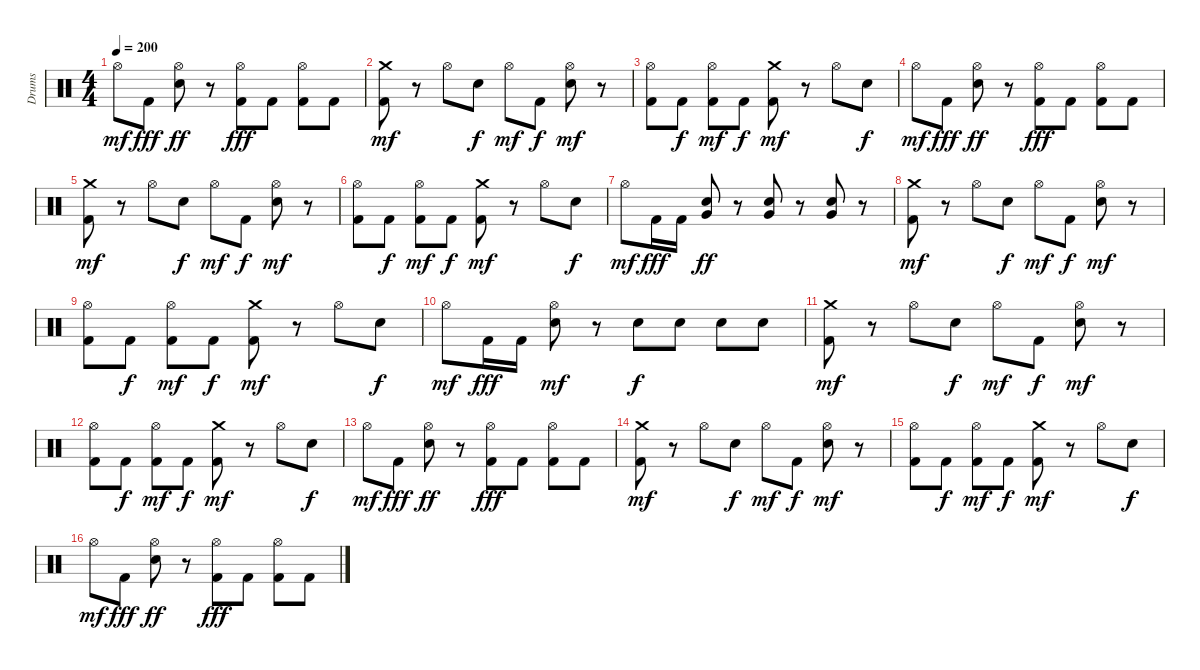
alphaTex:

\track ("Drums" "Drums") {instrument percussion}
\staff {score}
\articulation defaults
\ts (4 4)
\tempo 200
\clef neutral
\ks c "Hi-Hat (open)".8{dy mf} "Kick (hit) 2".8{dy fff}
("Hi-Hat (open)" "Electric Snare (hit)").8{dy ff} r.8 ("Hi-Hat (open)" "Kick (hit) 2").8{dy fff} "Kick (hit) 2".8 ("Hi-Hat (open)" "Kick (hit) 2").8 "Kick (hit) 2".8 |
("Crash medium (hit)" "Kick (hit) 2").8{dy mf} r.8 "Hi-Hat (open)".8 "Electric Snare (hit)".8{dy f} "Hi-Hat (open)".8{dy mf} "Kick (hit) 2".8{dy f} ("Hi-Hat (open)" "Electric Snare (hit)").8{dy mf} r.8 |
("Hi-Hat (open)" "Kick (hit) 2").8 "Kick (hit) 2".8{dy f} ("Hi-Hat (open)" "Kick (hit) 2").8{dy mf} "Kick (hit) 2".8{dy f} ("Crash medium (hit)" "Kick (hit) 2").8{dy mf} r.8 "Hi-Hat (open)".8 "Electric Snare (hit)".8{dy f} |
"Hi-Hat (open)".8{dy mf} "Kick (hit) 2".8{dy fff} ("Hi-Hat (open)" "Electric Snare (hit)").8{dy ff} r.8 ("Hi-Hat (open)" "Kick (hit) 2").8{dy fff} "Kick (hit) 2".8 ("Hi-Hat (open)" "Kick (hit) 2").8 "Kick (hit) 2".8 |
("Crash medium (hit)" "Kick (hit) 2").8{dy mf} r.8 "Hi-Hat (open)".8 "Electric Snare (hit)".8{dy f} "Hi-Hat (open)".8{dy mf} "Kick (hit) 2".8{dy f} ("Hi-Hat (open)" "Electric Snare (hit)").8{dy mf} r.8 |
("Hi-Hat (open)" "Kick (hit) 2").8 "Kick (hit) 2".8{dy f} ("Hi-Hat (open)" "Kick (hit) 2").8{dy mf} "Kick (hit) 2".8{dy f} ("Crash medium (hit)" "Kick (hit) 2").8{dy mf} r.8 "Hi-Hat (open)".8 "Electric Snare (hit)".8{dy f} |
"Hi-Hat (open)".8{dy mf} "Kick (hit) 2".16{dy fff} "Kick (hit) 2".16 ("Very Low Tom (hit)" "Electric Snare (hit)").8{dy ff} r.8 ("Very Low Tom (hit)" "Electric Snare (hit)").8 r.8 ("Very Low Tom (hit)" "Electric Snare (hit)").8 r.8 |
("Crash medium (hit)" "Kick (hit) 2").8{dy mf} r.8 "Hi-Hat (open)".8 "Electric Snare (hit)".8{dy f} "Hi-Hat (open)".8{dy mf} "Kick (hit) 2".8{dy f} ("Hi-Hat (open)" "Electric Snare (hit)").8{dy mf} r.8 |
("Hi-Hat (open)" "Kick (hit) 2").8 "Kick (hit) 2".8{dy f} ("Hi-Hat (open)" "Kick (hit) 2").8{dy mf} "Kick (hit) 2".8{dy f} ("Crash medium (hit)" "Kick (hit) 2").8{dy mf} r.8 "Hi-Hat (open)".8 "Electric Snare (hit)".8{dy f} |
"Hi-Hat (open)".8{dy mf} "Kick (hit) 2".16{dy fff} "Kick (hit) 2".16 ("Hi-Hat (open)" "Electric Snare (hit)").8{dy mf} r.8 "Electric Snare (hit)".8{dy f} "Electric Snare (hit)".8 "Electric Snare (hit)".8 "Electric Snare (hit)".8 |
("Crash medium (hit)" "Kick (hit) 2").8{dy mf} r.8 "Hi-Hat (open)".8 "Electric Snare (hit)".8{dy f} "Hi-Hat (open)".8{dy mf} "Kick (hit) 2".8{dy f} ("Hi-Hat (open)" "Electric Snare (hit)").8{dy mf} r.8 |
("Hi-Hat (open)" "Kick (hit) 2").8 "Kick (hit) 2".8{dy f} ("Hi-Hat (open)" "Kick (hit) 2").8{dy mf} "Kick (hit) 2".8{dy f} ("Crash medium (hit)" "Kick (hit) 2").8{dy mf} r.8 "Hi-Hat (open)".8 "Electric Snare (hit)".8{dy f} |
"Hi-Hat (open)".8{dy mf} "Kick (hit) 2".8{dy fff} ("Hi-Hat (open)" "Electric Snare (hit)").8{dy ff} r.8 ("Hi-Hat (open)" "Kick (hit) 2").8{dy fff} "Kick (hit) 2".8 ("Hi-Hat (open)" "Kick (hit) 2").8 "Kick (hit) 2".8 |
("Crash medium (hit)" "Kick (hit) 2").8{dy mf} r.8 "Hi-Hat (open)".8 "Electric Snare (hit)".8{dy f} "Hi-Hat (open)".8{dy mf} "Kick (hit) 2".8{dy f} ("Hi-Hat (open)" "Electric Snare (hit)").8{dy mf} r.8 |
("Hi-Hat (open)" "Kick (hit) 2").8 "Kick (hit) 2".8{dy f} ("Hi-Hat (open)" "Kick (hit) 2").8{dy mf} "Kick (hit) 2".8{dy f} ("Crash medium (hit)" "Kick (hit) 2").8{dy mf} r.8 "Hi-Hat (open)".8 "Electric Snare (hit)".8{dy f} |
"Hi-Hat (open)".8{dy mf} "Kick (hit) 2".8{dy fff} ("Hi-Hat (open)" "Electric Snare (hit)").8{dy ff} r.8 ("Hi-Hat (open)" "Kick (hit) 2").8{dy fff} "Kick (hit) 2".8 ("Hi-Hat (open)" "Kick (hit) 2").8 "Kick (hit) 2".8
